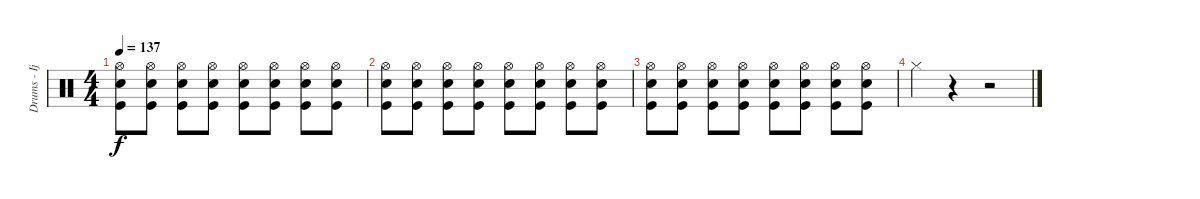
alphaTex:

\track ("Drums - Ijichi" "Drums - Ij") {instrument percussion}
\staff {score}
\articulation defaults
\ts (4 4)
\tempo 137
\clef neutral
\ks c
("Hi-Hat (open)" "Electric Snare (hit)" "Kick (hit)").8{dy f} ("Hi-Hat (open)" "Electric Snare (hit)" "Kick (hit)").8 ("Hi-Hat (open)" "Electric Snare (hit)" "Kick (hit)").8 ("Hi-Hat (open)" "Electric Snare (hit)" "Kick (hit)").8 ("Hi-Hat (open)" "Electric Snare (hit)" "Kick (hit)").8 ("Hi-Hat (open)" "Electric Snare (hit)" "Kick (hit)").8 ("Hi-Hat (open)" "Electric Snare (hit)" "Kick (hit)").8 ("Hi-Hat (open)" "Electric Snare (hit)" "Kick (hit)").8 |
("Hi-Hat (open)" "Electric Snare (hit)" "Kick (hit)").8 ("Hi-Hat (open)" "Electric Snare (hit)" "Kick (hit)").8 ("Hi-Hat (open)" "Electric Snare (hit)" "Kick (hit)").8 ("Hi-Hat (open)" "Electric Snare (hit)" "Kick (hit)").8 ("Hi-Hat (open)" "Electric Snare (hit)" "Kick (hit)").8 ("Hi-Hat (open)" "Electric Snare (hit)" "Kick (hit)").8 ("Hi-Hat (open)" "Electric Snare (hit)" "Kick (hit)").8 ("Hi-Hat (open)" "Electric Snare (hit)" "Kick (hit)").8 |
("Hi-Hat (open)" "Electric Snare (hit)" "Kick (hit)").8 ("Hi-Hat (open)" "Electric Snare (hit)" "Kick (hit)").8 ("Hi-Hat (open)" "Electric Snare (hit)" "Kick (hit)").8 ("Hi-Hat (open)" "Electric Snare (hit)" "Kick (hit)").8 ("Hi-Hat (open)" "Electric Snare (hit)" "Kick (hit)").8 ("Hi-Hat (open)" "Electric Snare (hit)" "Kick (hit)").8 ("Hi-Hat (open)" "Electric Snare (hit)" "Kick (hit)").8 ("Hi-Hat (open)" "Electric Snare (hit)" "Kick (hit)").8 |
"Hi-Hat (closed)".4 r.4 r.2
